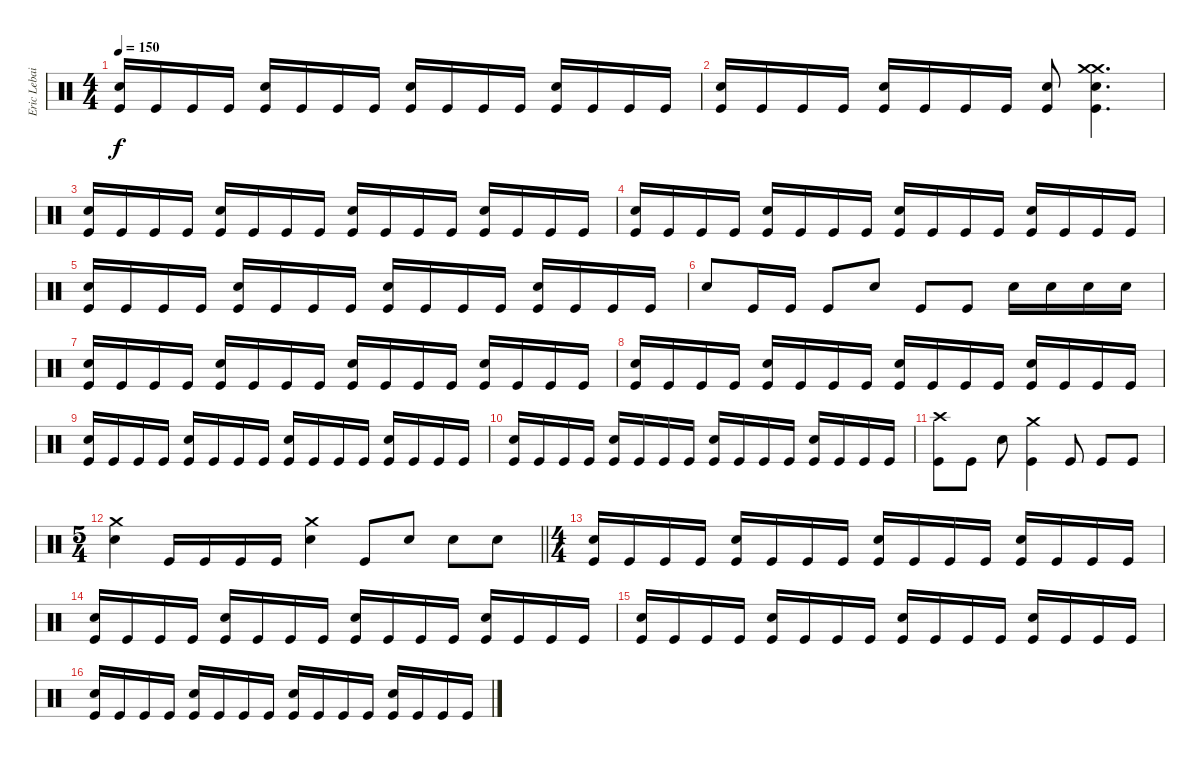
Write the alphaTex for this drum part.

\track ("Eric Lebailly - Drums" "Eric Lebai") {instrument percussion}
\staff {score}
\articulation defaults
\ts (4 4)
\tempo 150
\clef neutral
\ks c
("Snare (hit) 2" "Kick (hit)").16{dy f} "Kick (hit)".16 "Kick (hit)".16 "Kick (hit)".16 ("Snare (hit) 2" "Kick (hit)").16 "Kick (hit)".16 "Kick (hit)".16 "Kick (hit)".16 ("Snare (hit) 2" "Kick (hit)").16 "Kick (hit)".16 "Kick (hit)".16 "Kick (hit)".16 ("Snare (hit) 2" "Kick (hit)").16 "Kick (hit)".16 "Kick (hit)".16 "Kick (hit)".16 |
("Snare (hit) 2" "Kick (hit)").16 "Kick (hit)".16 "Kick (hit)".16 "Kick (hit)".16 ("Snare (hit) 2" "Kick (hit)").16 "Kick (hit)".16 "Kick (hit)".16 "Kick (hit)".16 ("Snare (hit) 2" "Kick (hit)").8 ("Crash medium (hit)" "Crash medium (hit)" "Snare (hit) 2" "Kick (hit)").4{d} |
("Snare (hit) 2" "Kick (hit)").16 "Kick (hit)".16 "Kick (hit)".16 "Kick (hit)".16 ("Snare (hit) 2" "Kick (hit)").16 "Kick (hit)".16 "Kick (hit)".16 "Kick (hit)".16 ("Snare (hit) 2" "Kick (hit)").16 "Kick (hit)".16 "Kick (hit)".16 "Kick (hit)".16 ("Snare (hit) 2" "Kick (hit)").16 "Kick (hit)".16 "Kick (hit)".16 "Kick (hit)".16 |
("Snare (hit) 2" "Kick (hit)").16 "Kick (hit)".16 "Kick (hit)".16 "Kick (hit)".16 ("Snare (hit) 2" "Kick (hit)").16 "Kick (hit)".16 "Kick (hit)".16 "Kick (hit)".16 ("Snare (hit) 2" "Kick (hit)").16 "Kick (hit)".16 "Kick (hit)".16 "Kick (hit)".16 ("Snare (hit) 2" "Kick (hit)").16 "Kick (hit)".16 "Kick (hit)".16 "Kick (hit)".16 |
("Snare (hit) 2" "Kick (hit)").16 "Kick (hit)".16 "Kick (hit)".16 "Kick (hit)".16 ("Snare (hit) 2" "Kick (hit)").16 "Kick (hit)".16 "Kick (hit)".16 "Kick (hit)".16 ("Snare (hit) 2" "Kick (hit)").16 "Kick (hit)".16 "Kick (hit)".16 "Kick (hit)".16 ("Snare (hit) 2" "Kick (hit)").16 "Kick (hit)".16 "Kick (hit)".16 "Kick (hit)".16 |
"Snare (hit) 2".8 "Kick (hit)".16 "Kick (hit)".16 "Kick (hit)".8 "Snare (hit) 2".8 "Kick (hit)".8 "Kick (hit)".8 "Snare (hit) 2".16 "Snare (hit) 2".16 "Snare (hit) 2".16 "Snare (hit) 2".16 |
("Snare (hit) 2" "Kick (hit)").16 "Kick (hit)".16 "Kick (hit)".16 "Kick (hit)".16 ("Snare (hit) 2" "Kick (hit)").16 "Kick (hit)".16 "Kick (hit)".16 "Kick (hit)".16 ("Snare (hit) 2" "Kick (hit)").16 "Kick (hit)".16 "Kick (hit)".16 "Kick (hit)".16 ("Snare (hit) 2" "Kick (hit)").16 "Kick (hit)".16 "Kick (hit)".16 "Kick (hit)".16 |
("Snare (hit) 2" "Kick (hit)").16 "Kick (hit)".16 "Kick (hit)".16 "Kick (hit)".16 ("Snare (hit) 2" "Kick (hit)").16 "Kick (hit)".16 "Kick (hit)".16 "Kick (hit)".16 ("Snare (hit) 2" "Kick (hit)").16 "Kick (hit)".16 "Kick (hit)".16 "Kick (hit)".16 ("Snare (hit) 2" "Kick (hit)").16 "Kick (hit)".16 "Kick (hit)".16 "Kick (hit)".16 |
("Snare (hit) 2" "Kick (hit)").16 "Kick (hit)".16 "Kick (hit)".16 "Kick (hit)".16 ("Snare (hit) 2" "Kick (hit)").16 "Kick (hit)".16 "Kick (hit)".16 "Kick (hit)".16 ("Snare (hit) 2" "Kick (hit)").16 "Kick (hit)".16 "Kick (hit)".16 "Kick (hit)".16 ("Snare (hit) 2" "Kick (hit)").16 "Kick (hit)".16 "Kick (hit)".16 "Kick (hit)".16 |
("Snare (hit) 2" "Kick (hit)").16 "Kick (hit)".16 "Kick (hit)".16 "Kick (hit)".16 ("Snare (hit) 2" "Kick (hit)").16 "Kick (hit)".16 "Kick (hit)".16 "Kick (hit)".16 ("Snare (hit) 2" "Kick (hit)").16 "Kick (hit)".16 "Kick (hit)".16 "Kick (hit)".16 ("Snare (hit) 2" "Kick (hit)").16 "Kick (hit)".16 "Kick (hit)".16 "Kick (hit)".16 |
("Crash high (hit)" "Kick (hit)").8 "Kick (hit)".8 "Snare (hit) 2".8 ("Crash medium (hit)" "Kick (hit)").4 "Kick (hit)".8 "Kick (hit)".8 "Kick (hit)".8 |
\ts (5 4)
\barLineRight lightlight
("Crash medium (hit)" "Snare (hit) 2").4 "Kick (hit)".16 "Kick (hit)".16 "Kick (hit)".16 "Kick (hit)".16 ("Crash medium (hit)" "Snare (hit) 2").4 "Kick (hit)".8 "Snare (hit) 2".8 "Snare (hit) 2".8 "Snare (hit) 2".8 |
\ts (4 4)
("Snare (hit) 2" "Kick (hit)").16 "Kick (hit)".16 "Kick (hit)".16 "Kick (hit)".16 ("Snare (hit) 2" "Kick (hit)").16 "Kick (hit)".16 "Kick (hit)".16 "Kick (hit)".16 ("Snare (hit) 2" "Kick (hit)").16 "Kick (hit)".16 "Kick (hit)".16 "Kick (hit)".16 ("Snare (hit) 2" "Kick (hit)").16 "Kick (hit)".16 "Kick (hit)".16 "Kick (hit)".16 |
("Snare (hit) 2" "Kick (hit)").16 "Kick (hit)".16 "Kick (hit)".16 "Kick (hit)".16 ("Snare (hit) 2" "Kick (hit)").16 "Kick (hit)".16 "Kick (hit)".16 "Kick (hit)".16 ("Snare (hit) 2" "Kick (hit)").16 "Kick (hit)".16 "Kick (hit)".16 "Kick (hit)".16 ("Snare (hit) 2" "Kick (hit)").16 "Kick (hit)".16 "Kick (hit)".16 "Kick (hit)".16 |
("Snare (hit) 2" "Kick (hit)").16 "Kick (hit)".16 "Kick (hit)".16 "Kick (hit)".16 ("Snare (hit) 2" "Kick (hit)").16 "Kick (hit)".16 "Kick (hit)".16 "Kick (hit)".16 ("Snare (hit) 2" "Kick (hit)").16 "Kick (hit)".16 "Kick (hit)".16 "Kick (hit)".16 ("Snare (hit) 2" "Kick (hit)").16 "Kick (hit)".16 "Kick (hit)".16 "Kick (hit)".16 |
("Snare (hit) 2" "Kick (hit)").16 "Kick (hit)".16 "Kick (hit)".16 "Kick (hit)".16 ("Snare (hit) 2" "Kick (hit)").16 "Kick (hit)".16 "Kick (hit)".16 "Kick (hit)".16 ("Snare (hit) 2" "Kick (hit)").16 "Kick (hit)".16 "Kick (hit)".16 "Kick (hit)".16 ("Snare (hit) 2" "Kick (hit)").16 "Kick (hit)".16 "Kick (hit)".16 "Kick (hit)".16
